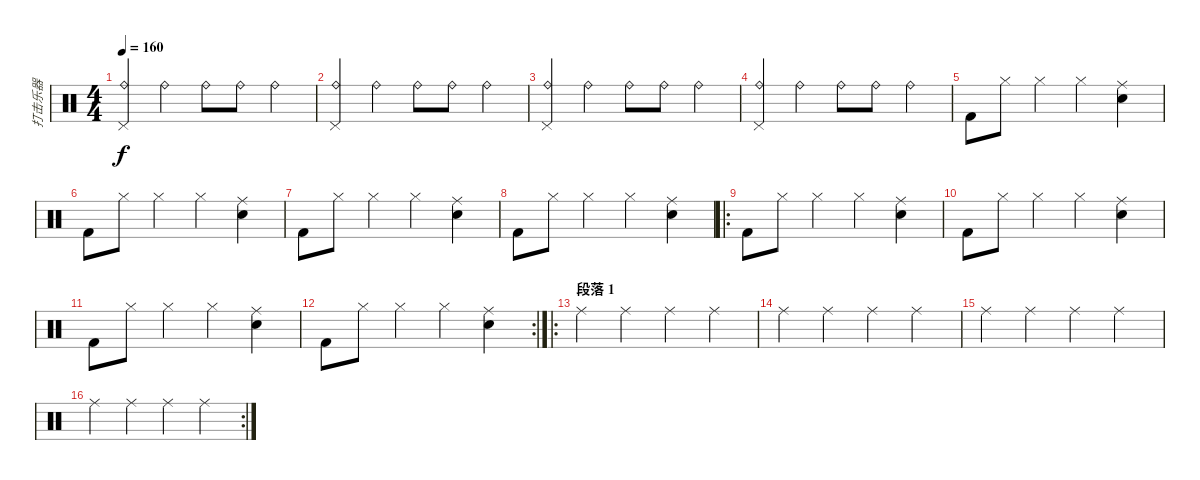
\track ("打击乐器" "打击乐器") {instrument percussion}
\staff {score}
\articulation defaults
\ts (4 4)
\tempo 160
\clef neutral
\ks c
("Ride (bell)" "Pedal Hi-Hat (hit)").4{dy f} "Ride (bell)".4 "Ride (bell)".8 "Ride (bell)".8 "Ride (bell)".4 |
("Ride (bell)" "Pedal Hi-Hat (hit)").4 "Ride (bell)".4 "Ride (bell)".8 "Ride (bell)".8 "Ride (bell)".4 |
("Ride (bell)" "Pedal Hi-Hat (hit)").4 "Ride (bell)".4 "Ride (bell)".8 "Ride (bell)".8 "Ride (bell)".4 |
("Ride (bell)" "Pedal Hi-Hat (hit)").4 "Ride (bell)".4 "Ride (bell)".8 "Ride (bell)".8 "Ride (bell)".4 |
"Kick (hit) 2".8 "Hi-Hat (closed)".8 "Hi-Hat (closed)".4 "Hi-Hat (closed)".4 ("Ride (middle)" "Snare (hit) 2").4 |
"Kick (hit) 2".8 "Hi-Hat (closed)".8 "Hi-Hat (closed)".4 "Hi-Hat (closed)".4 ("Ride (middle)" "Snare (hit) 2").4 |
"Kick (hit) 2".8 "Hi-Hat (closed)".8 "Hi-Hat (closed)".4 "Hi-Hat (closed)".4 ("Ride (middle)" "Snare (hit) 2").4 |
"Kick (hit) 2".8 "Hi-Hat (closed)".8 "Hi-Hat (closed)".4 "Hi-Hat (closed)".4 ("Ride (middle)" "Snare (hit) 2").4 |
\ro "Kick (hit) 2".8 "Hi-Hat (closed)".8 "Hi-Hat (closed)".4 "Hi-Hat (closed)".4
("Ride (middle)" "Snare (hit) 2").4 |
"Kick (hit) 2".8 "Hi-Hat (closed)".8 "Hi-Hat (closed)".4 "Hi-Hat (closed)".4 ("Ride (middle)" "Snare (hit) 2").4 |
"Kick (hit) 2".8 "Hi-Hat (closed)".8 "Hi-Hat (closed)".4 "Hi-Hat (closed)".4 ("Ride (middle)" "Snare (hit) 2").4 |
\rc 2 "Kick (hit) 2".8 "Hi-Hat (closed)".8 "Hi-Hat (closed)".4 "Hi-Hat (closed)".4
("Ride (middle)" "Snare (hit) 2").4 |
\ro
\section ("" "段落 1")
"Ride (middle)".4 "Ride (middle)".4 "Ride (middle)".4 "Ride (middle)".4 |
"Ride (middle)".4 "Ride (middle)".4 "Ride (middle)".4 "Ride (middle)".4 |
"Ride (middle)".4 "Ride (middle)".4 "Ride (middle)".4 "Ride (middle)".4 |
\rc 2 "Ride (middle)".4 "Ride (middle)".4 "Ride (middle)".4 "Ride (middle)".4
